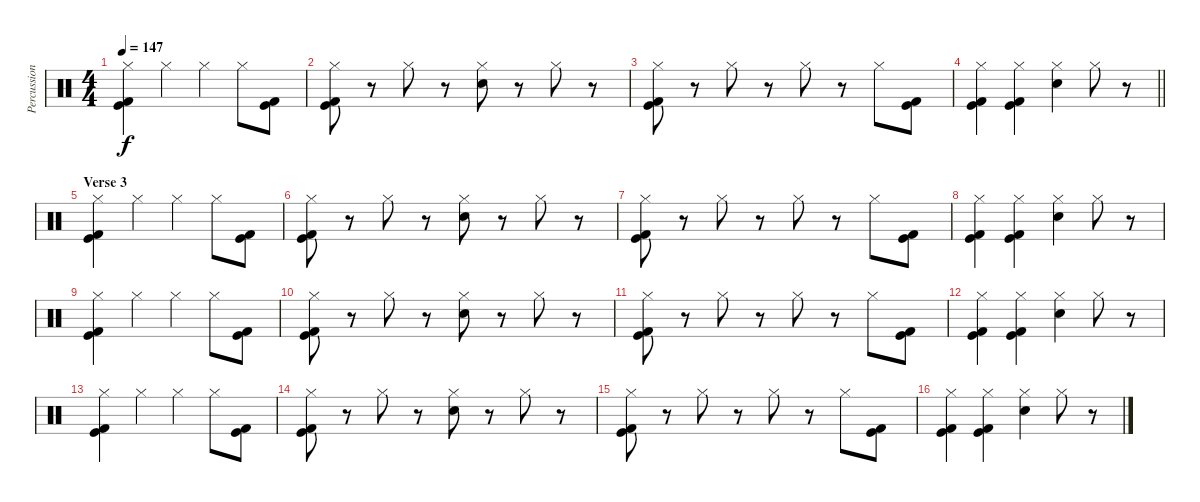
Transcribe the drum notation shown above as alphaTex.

\track ("Percussion" "Percussion") {instrument percussion}
\staff {score}
\articulation defaults
\ts (4 4)
\tempo 147
\clef neutral
\ks c
("Hi-Hat (closed)" "Kick (hit) 2" "Kick (hit)").4{dy f} "Hi-Hat (closed)".4 "Hi-Hat (closed)".4 "Hi-Hat (closed)".8 ("Kick (hit) 2" "Kick (hit)").8 |
("Hi-Hat (closed)" "Kick (hit) 2" "Kick (hit)").8 r.8 "Hi-Hat (closed)".8 r.8 ("Hi-Hat (closed)" "Snare (hit) 2").8 r.8 "Hi-Hat (closed)".8 r.8 |
("Hi-Hat (closed)" "Kick (hit) 2" "Kick (hit)").8 r.8 "Hi-Hat (closed)".8 r.8 "Hi-Hat (closed)".8 r.8 "Hi-Hat (closed)".8 ("Kick (hit) 2" "Kick (hit)").8 |
\barLineRight lightlight
("Hi-Hat (closed)" "Kick (hit) 2" "Kick (hit)").4 ("Hi-Hat (closed)" "Kick (hit) 2" "Kick (hit)").4 ("Hi-Hat (closed)" "Snare (hit) 2").4 "Hi-Hat (closed)".8 r.8 |
\section ("" "Verse 3")
("Hi-Hat (closed)" "Kick (hit) 2" "Kick (hit)").4 "Hi-Hat (closed)".4 "Hi-Hat (closed)".4 "Hi-Hat (closed)".8 ("Kick (hit) 2" "Kick (hit)").8 |
("Hi-Hat (closed)" "Kick (hit) 2" "Kick (hit)").8 r.8 "Hi-Hat (closed)".8 r.8 ("Hi-Hat (closed)" "Snare (hit) 2").8 r.8 "Hi-Hat (closed)".8 r.8 |
("Hi-Hat (closed)" "Kick (hit) 2" "Kick (hit)").8 r.8 "Hi-Hat (closed)".8 r.8 "Hi-Hat (closed)".8 r.8 "Hi-Hat (closed)".8 ("Kick (hit) 2" "Kick (hit)").8 |
("Hi-Hat (closed)" "Kick (hit) 2" "Kick (hit)").4 ("Hi-Hat (closed)" "Kick (hit) 2" "Kick (hit)").4 ("Hi-Hat (closed)" "Snare (hit) 2").4 "Hi-Hat (closed)".8 r.8 |
("Hi-Hat (closed)" "Kick (hit) 2" "Kick (hit)").4 "Hi-Hat (closed)".4 "Hi-Hat (closed)".4 "Hi-Hat (closed)".8 ("Kick (hit) 2" "Kick (hit)").8 |
("Hi-Hat (closed)" "Kick (hit) 2" "Kick (hit)").8 r.8 "Hi-Hat (closed)".8 r.8 ("Hi-Hat (closed)" "Snare (hit) 2").8 r.8 "Hi-Hat (closed)".8 r.8 |
("Hi-Hat (closed)" "Kick (hit) 2" "Kick (hit)").8 r.8 "Hi-Hat (closed)".8 r.8 "Hi-Hat (closed)".8 r.8 "Hi-Hat (closed)".8 ("Kick (hit) 2" "Kick (hit)").8 |
("Hi-Hat (closed)" "Kick (hit) 2" "Kick (hit)").4 ("Hi-Hat (closed)" "Kick (hit) 2" "Kick (hit)").4 ("Hi-Hat (closed)" "Snare (hit) 2").4 "Hi-Hat (closed)".8 r.8 |
("Hi-Hat (closed)" "Kick (hit) 2" "Kick (hit)").4 "Hi-Hat (closed)".4 "Hi-Hat (closed)".4 "Hi-Hat (closed)".8 ("Kick (hit) 2" "Kick (hit)").8 |
("Hi-Hat (closed)" "Kick (hit) 2" "Kick (hit)").8 r.8 "Hi-Hat (closed)".8 r.8 ("Hi-Hat (closed)" "Snare (hit) 2").8 r.8 "Hi-Hat (closed)".8 r.8 |
("Hi-Hat (closed)" "Kick (hit) 2" "Kick (hit)").8 r.8 "Hi-Hat (closed)".8 r.8 "Hi-Hat (closed)".8 r.8 "Hi-Hat (closed)".8 ("Kick (hit) 2" "Kick (hit)").8 |
("Hi-Hat (closed)" "Kick (hit) 2" "Kick (hit)").4 ("Hi-Hat (closed)" "Kick (hit) 2" "Kick (hit)").4 ("Hi-Hat (closed)" "Snare (hit) 2").4 "Hi-Hat (closed)".8 r.8
